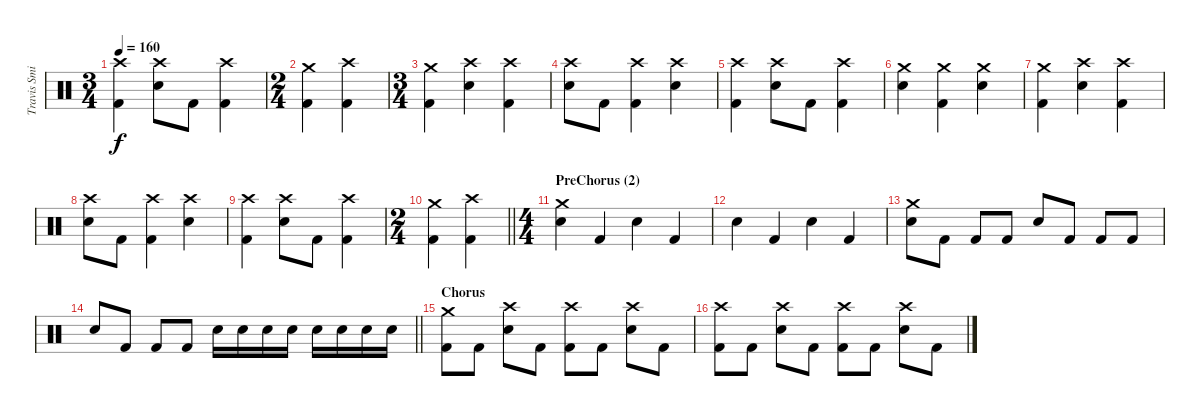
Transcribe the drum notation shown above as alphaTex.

\track ("Travis Smith" "Travis Smi") {instrument percussion}
\staff {score}
\articulation defaults
\ts (3 4)
\tempo 160
\clef neutral
\ks c
("Crash high (hit)" "Kick (hit) 2").4{dy f} ("Crash high (hit)" "Electric Snare (hit)").8 "Kick (hit) 2".8 ("Crash high (hit)" "Kick (hit) 2").4 |
\ts (2 4)
("Crash medium (hit)" "Kick (hit) 2").4 ("Crash high (hit)" "Kick (hit) 2").4 |
\ts (3 4)
("Crash medium (hit)" "Kick (hit) 2").4 ("Crash high (hit)" "Electric Snare (hit)").4 ("Crash high (hit)" "Kick (hit) 2").4 |
("Crash high (hit)" "Electric Snare (hit)").8 "Kick (hit) 2".8 ("Crash high (hit)" "Kick (hit) 2").4 ("Crash high (hit)" "Electric Snare (hit)").4 |
("Crash high (hit)" "Kick (hit) 2").4 ("Crash high (hit)" "Electric Snare (hit)").8 "Kick (hit) 2".8 ("Crash high (hit)" "Kick (hit) 2").4 |
("Crash medium (hit)" "Electric Snare (hit)").4 ("Crash medium (hit)" "Kick (hit) 2").4 ("Crash medium (hit)" "Electric Snare (hit)").4 |
("Crash medium (hit)" "Kick (hit) 2").4 ("Crash high (hit)" "Electric Snare (hit)").4 ("Crash high (hit)" "Kick (hit) 2").4 |
("Crash high (hit)" "Electric Snare (hit)").8 "Kick (hit) 2".8 ("Crash high (hit)" "Kick (hit) 2").4 ("Crash high (hit)" "Electric Snare (hit)").4 |
("Crash high (hit)" "Kick (hit) 2").4 ("Crash high (hit)" "Electric Snare (hit)").8 "Kick (hit) 2".8 ("Crash high (hit)" "Kick (hit) 2").4 |
\ts (2 4)
\barLineRight lightlight
("Crash medium (hit)" "Kick (hit) 2").4 ("Crash high (hit)" "Kick (hit) 2").4 |
\ts (4 4)
\section ("" "PreChorus (2)")
("Crash medium (hit)" "Electric Snare (hit)").4 "Kick (hit) 2".4 "Electric Snare (hit)".4 "Kick (hit) 2".4 |
"Electric Snare (hit)".4 "Kick (hit) 2".4 "Electric Snare (hit)".4 "Kick (hit) 2".4 |
("Crash medium (hit)" "Electric Snare (hit)").8 "Kick (hit) 2".8 "Kick (hit) 2".8 "Kick (hit) 2".8 "Electric Snare (hit)".8 "Kick (hit) 2".8 "Kick (hit) 2".8 "Kick (hit) 2".8 |
\barLineRight lightlight "Electric Snare (hit)".8 "Kick (hit) 2".8 "Kick (hit) 2".8 "Kick (hit) 2".8 "Electric Snare (hit)".16 "Electric Snare (hit)".16 "Electric Snare (hit)".16 "Electric Snare (hit)".16 "Electric Snare (hit)".16 "Electric Snare (hit)".16 "Electric Snare (hit)".16 "Electric Snare (hit)".16
|
\section ("" "Chorus")
("Crash medium (hit)" "Kick (hit) 2").8 "Kick (hit) 2".8 ("Crash high (hit)" "Electric Snare (hit)").8 "Kick (hit) 2".8 ("Crash high (hit)" "Kick (hit) 2").8 "Kick (hit) 2".8 ("Crash high (hit)" "Electric Snare (hit)").8 "Kick (hit) 2".8 |
("Crash high (hit)" "Kick (hit) 2").8 "Kick (hit) 2".8 ("Crash high (hit)" "Electric Snare (hit)").8 "Kick (hit) 2".8 ("Crash high (hit)" "Kick (hit) 2").8 "Kick (hit) 2".8 ("Crash high (hit)" "Electric Snare (hit)").8 "Kick (hit) 2".8
